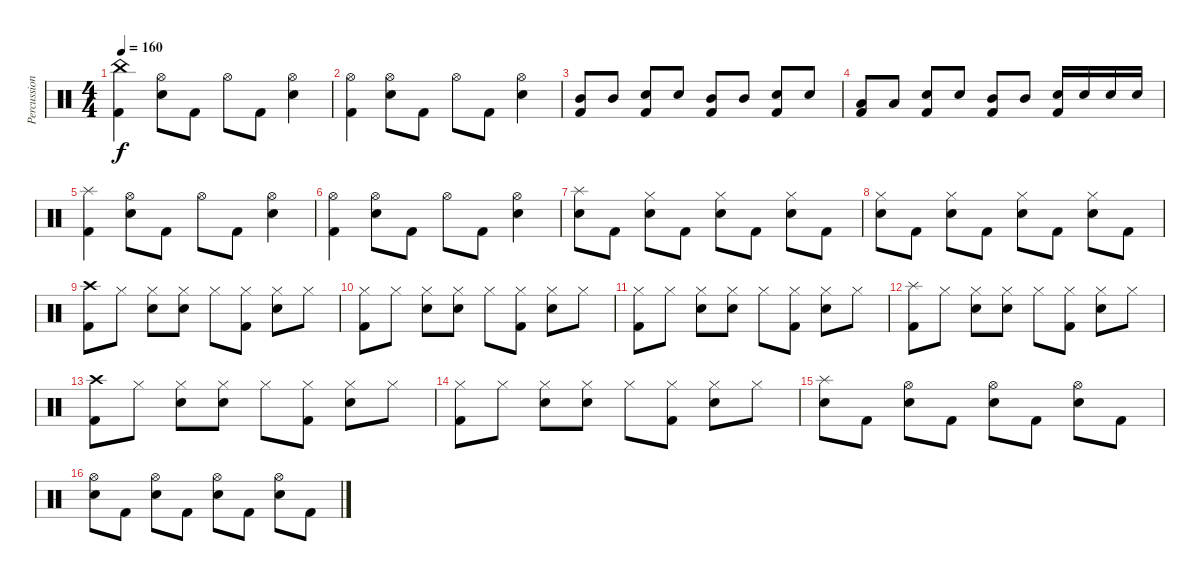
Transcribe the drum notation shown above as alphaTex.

\track ("Percussion" "Percussion") {instrument percussion}
\staff {score}
\articulation defaults
\ts (4 4)
\tempo 160
\clef neutral
\ks c
("China (hit)" "Kick (hit) 2").4{dy f} ("Hi-Hat (open)" "Snare (hit) 2").8 "Kick (hit) 2".8 "Hi-Hat (open)".8 "Kick (hit) 2".8 ("Hi-Hat (open)" "Snare (hit) 2").4 |
("Hi-Hat (open)" "Kick (hit) 2").4 ("Hi-Hat (open)" "Snare (hit) 2").8 "Kick (hit) 2".8 "Hi-Hat (open)".8 "Kick (hit) 2".8 ("Hi-Hat (open)" "Snare (hit) 2").4 |
("Mid Tom (hit)" "Kick (hit) 2").8 "Mid Tom (hit)".8 ("Snare (hit) 2" "Kick (hit) 2").8 "Snare (hit) 2".8 ("Mid Tom (hit)" "Kick (hit) 2").8 "Mid Tom (hit)".8 ("Snare (hit) 2" "Kick (hit) 2").8 "Snare (hit) 2".8 |
("Low Tom (hit)" "Kick (hit) 2").8 "Low Tom (hit)".8 ("Snare (hit) 2" "Kick (hit) 2").8 "Snare (hit) 2".8 ("Mid Tom (hit)" "Kick (hit) 2").8 "Mid Tom (hit)".8 ("Snare (hit) 2" "Kick (hit) 2").16 "Snare (hit) 2".16 "Snare (hit) 2".16 "Snare (hit) 2".16 |
("Splash (hit)" "Kick (hit) 2").4 ("Hi-Hat (open)" "Snare (hit) 2").8 "Kick (hit) 2".8 "Hi-Hat (open)".8 "Kick (hit) 2".8 ("Hi-Hat (open)" "Snare (hit) 2").4 |
("Hi-Hat (open)" "Kick (hit) 2").4 ("Hi-Hat (open)" "Snare (hit) 2").8 "Kick (hit) 2".8 "Hi-Hat (open)".8 "Kick (hit) 2".8 ("Hi-Hat (open)" "Snare (hit) 2").4 |
("Splash (hit)" "Snare (hit) 2").8 "Kick (hit) 2".8 ("Hi-Hat (closed)" "Snare (hit) 2").8 "Kick (hit) 2".8 ("Hi-Hat (closed)" "Snare (hit) 2").8 "Kick (hit) 2".8 ("Hi-Hat (closed)" "Snare (hit) 2").8 "Kick (hit) 2".8 |
("Hi-Hat (closed)" "Snare (hit) 2").8 "Kick (hit) 2".8 ("Hi-Hat (closed)" "Snare (hit) 2").8 "Kick (hit) 2".8 ("Hi-Hat (closed)" "Snare (hit) 2").8 "Kick (hit) 2".8 ("Hi-Hat (closed)" "Snare (hit) 2").8 "Kick (hit) 2".8 |
("Crash high (hit)" "Kick (hit) 2").8 "Hi-Hat (closed)".8 ("Hi-Hat (closed)" "Snare (hit) 2").8 ("Hi-Hat (closed)" "Snare (hit) 2").8 "Hi-Hat (closed)".8 ("Hi-Hat (closed)" "Kick (hit) 2").8 ("Hi-Hat (closed)" "Snare (hit) 2").8 "Hi-Hat (closed)".8 |
("Hi-Hat (closed)" "Kick (hit) 2").8 "Hi-Hat (closed)".8 ("Hi-Hat (closed)" "Snare (hit) 2").8 ("Hi-Hat (closed)" "Snare (hit) 2").8 "Hi-Hat (closed)".8 ("Hi-Hat (closed)" "Kick (hit) 2").8 ("Hi-Hat (closed)" "Snare (hit) 2").8 "Hi-Hat (closed)".8 |
("Hi-Hat (closed)" "Kick (hit) 2").8 "Hi-Hat (closed)".8 ("Hi-Hat (closed)" "Snare (hit) 2").8 ("Hi-Hat (closed)" "Snare (hit) 2").8 "Hi-Hat (closed)".8 ("Hi-Hat (closed)" "Kick (hit) 2").8 ("Hi-Hat (closed)" "Snare (hit) 2").8 "Hi-Hat (closed)".8 |
("Splash (hit)" "Kick (hit) 2").8 "Hi-Hat (closed)".8 ("Hi-Hat (closed)" "Snare (hit) 2").8 ("Hi-Hat (closed)" "Snare (hit) 2").8 "Hi-Hat (closed)".8 ("Hi-Hat (closed)" "Kick (hit) 2").8 ("Hi-Hat (closed)" "Snare (hit) 2").8 "Hi-Hat (closed)".8 |
("Crash high (hit)" "Kick (hit) 2").8 "Hi-Hat (closed)".8 ("Hi-Hat (closed)" "Snare (hit) 2").8 ("Hi-Hat (closed)" "Snare (hit) 2").8 "Hi-Hat (closed)".8 ("Hi-Hat (closed)" "Kick (hit) 2").8 ("Hi-Hat (closed)" "Snare (hit) 2").8 "Hi-Hat (closed)".8 |
("Hi-Hat (closed)" "Kick (hit) 2").8 "Hi-Hat (closed)".8 ("Hi-Hat (closed)" "Snare (hit) 2").8 ("Hi-Hat (closed)" "Snare (hit) 2").8 "Hi-Hat (closed)".8 ("Hi-Hat (closed)" "Kick (hit) 2").8 ("Hi-Hat (closed)" "Snare (hit) 2").8 "Hi-Hat (closed)".8 |
("Splash (hit)" "Snare (hit) 2").8 "Kick (hit) 2".8 ("Hi-Hat (open)" "Snare (hit) 2").8 "Kick (hit) 2".8 ("Hi-Hat (open)" "Snare (hit) 2").8 "Kick (hit) 2".8 ("Hi-Hat (open)" "Snare (hit) 2").8 "Kick (hit) 2".8 |
("Hi-Hat (open)" "Snare (hit) 2").8 "Kick (hit) 2".8 ("Hi-Hat (open)" "Snare (hit) 2").8 "Kick (hit) 2".8 ("Hi-Hat (open)" "Snare (hit) 2").8 "Kick (hit) 2".8 ("Hi-Hat (open)" "Snare (hit) 2").8 "Kick (hit) 2".8
